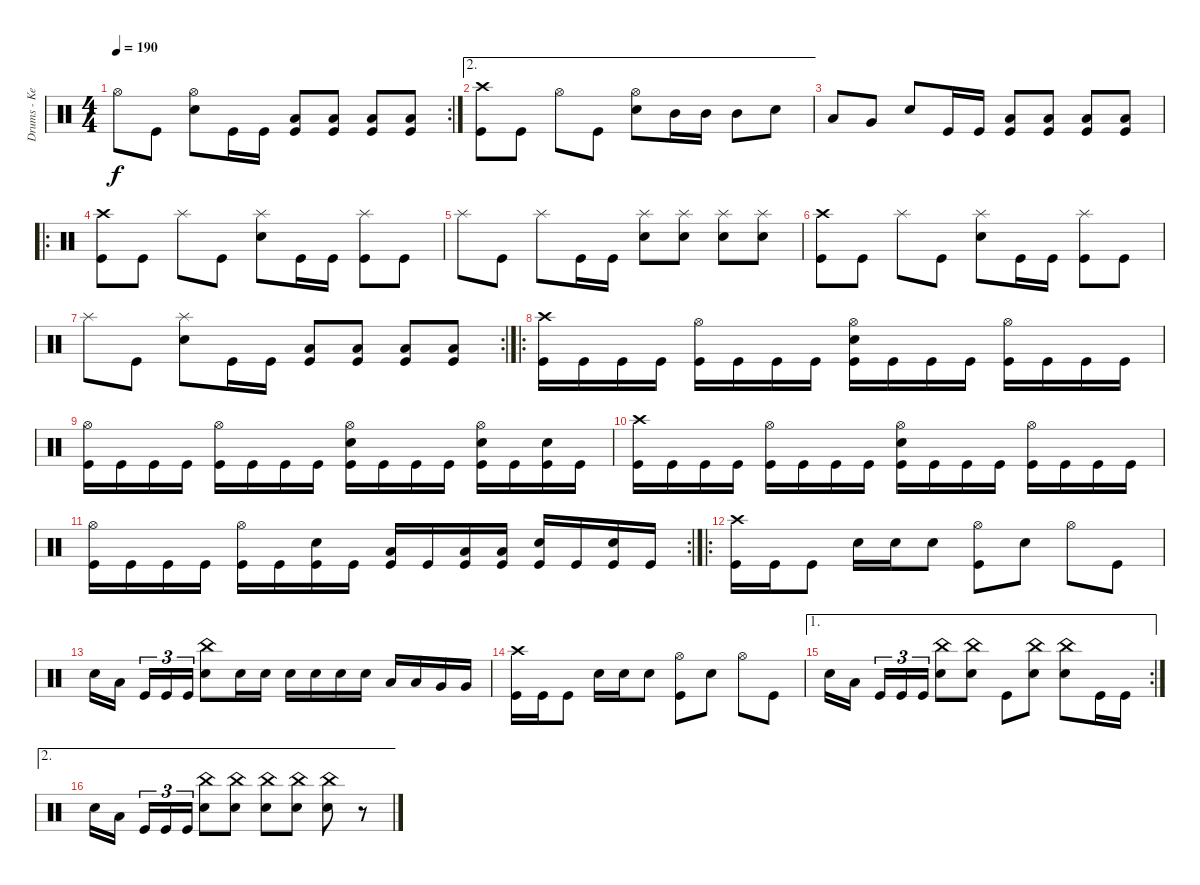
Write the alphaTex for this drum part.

\track ("Drums - Kevin" "Drums - Ke") {instrument percussion}
\staff {score}
\articulation defaults
\rc 2
\ts (4 4)
\tempo 190
\clef neutral
\ks c "Hi-Hat (open)".8{dy f} "Kick (hit)".8
("Hi-Hat (open)" "Electric Snare (hit)").8 "Kick (hit)".16 "Kick (hit)".16 ("Low Tom (hit)" "Kick (hit)").8 ("Low Tom (hit)" "Kick (hit)").8 ("Low Tom (hit)" "Kick (hit)").8 ("Low Tom (hit)" "Kick (hit)").8 |
\ae 2
("Crash high (hit)" "Kick (hit)").8 "Kick (hit)".8 "Hi-Hat (open)".8 "Kick (hit)".8 ("Hi-Hat (open)" "Electric Snare (hit)").8 "Mid Tom (hit)".16 "Mid Tom (hit)".16 "Mid Tom (hit)".8 "Electric Snare (hit)".8 |
"Low Tom (hit)".8 "Very Low Tom (hit)".8 "Electric Snare (hit)".8 "Kick (hit)".16 "Kick (hit)".16 ("Low Tom (hit)" "Kick (hit)").8 ("Low Tom (hit)" "Kick (hit)").8 ("Low Tom (hit)" "Kick (hit)").8 ("Low Tom (hit)" "Kick (hit)").8 |
\ro
("Crash high (hit)" "Kick (hit)").8 "Kick (hit)".8 "Splash (hit)".8 "Kick (hit)".8 ("Splash (hit)" "Electric Snare (hit)").8 "Kick (hit)".16 "Kick (hit)".16 ("Splash (hit)" "Kick (hit)").8 "Kick (hit)".8 |
"Splash (hit)".8 "Kick (hit)".8 "Splash (hit)".8 "Kick (hit)".16 "Kick (hit)".16 ("Splash (hit)" "Electric Snare (hit)").8 ("Splash (hit)" "Electric Snare (hit)").8 ("Splash (hit)" "Electric Snare (hit)").8 ("Splash (hit)" "Electric Snare (hit)").8 |
("Crash high (hit)" "Kick (hit)").8 "Kick (hit)".8 "Splash (hit)".8 "Kick (hit)".8 ("Splash (hit)" "Electric Snare (hit)").8 "Kick (hit)".16 "Kick (hit)".16 ("Splash (hit)" "Kick (hit)").8 "Kick (hit)".8 |
\rc 2 "Splash (hit)".8 "Kick (hit)".8
("Splash (hit)" "Electric Snare (hit)").8 "Kick (hit)".16 "Kick (hit)".16 ("Low Tom (hit)" "Kick (hit)").8 ("Low Tom (hit)" "Kick (hit)").8 ("Low Tom (hit)" "Kick (hit)").8 ("Low Tom (hit)" "Kick (hit)").8 |
\ro
("Crash high (hit)" "Kick (hit)").16 "Kick (hit)".16 "Kick (hit)".16 "Kick (hit)".16 ("Hi-Hat (open)" "Kick (hit)").16 "Kick (hit)".16 "Kick (hit)".16 "Kick (hit)".16 ("Hi-Hat (open)" "Electric Snare (hit)" "Kick (hit)").16 "Kick (hit)".16 "Kick (hit)".16 "Kick (hit)".16 ("Hi-Hat (open)" "Kick (hit)").16 "Kick (hit)".16 "Kick (hit)".16 "Kick (hit)".16 |
("Hi-Hat (open)" "Kick (hit)").16 "Kick (hit)".16 "Kick (hit)".16 "Kick (hit)".16 ("Hi-Hat (open)" "Kick (hit)").16 "Kick (hit)".16 "Kick (hit)".16 "Kick (hit)".16 ("Hi-Hat (open)" "Electric Snare (hit)" "Kick (hit)").16 "Kick (hit)".16 "Kick (hit)".16 "Kick (hit)".16 ("Hi-Hat (open)" "Electric Snare (hit)" "Kick (hit)").16 "Kick (hit)".16 ("Electric Snare (hit)" "Kick (hit)").16 "Kick (hit)".16 |
("Crash high (hit)" "Kick (hit)").16 "Kick (hit)".16 "Kick (hit)".16 "Kick (hit)".16 ("Hi-Hat (open)" "Kick (hit)").16 "Kick (hit)".16 "Kick (hit)".16 "Kick (hit)".16 ("Hi-Hat (open)" "Electric Snare (hit)" "Kick (hit)").16 "Kick (hit)".16 "Kick (hit)".16 "Kick (hit)".16 ("Hi-Hat (open)" "Kick (hit)").16 "Kick (hit)".16 "Kick (hit)".16 "Kick (hit)".16 |
\rc 2
("Hi-Hat (open)" "Kick (hit)").16 "Kick (hit)".16 "Kick (hit)".16 "Kick (hit)".16 ("Hi-Hat (open)" "Kick (hit)").16 "Kick (hit)".16 ("Electric Snare (hit)" "Kick (hit)").16 "Kick (hit)".16 ("Low Tom (hit)" "Kick (hit)").16 "Kick (hit)".16 ("Low Tom (hit)" "Kick (hit)").16 ("Low Tom (hit)" "Kick (hit)").16 ("Electric Snare (hit)" "Kick (hit)").16 "Kick (hit)".16 ("Electric Snare (hit)" "Kick (hit)").16 "Kick (hit)".16 |
\ro
("Crash high (hit)" "Kick (hit)").16 "Kick (hit)".16 "Kick (hit)".8 "Electric Snare (hit)".16 "Electric Snare (hit)".16 "Electric Snare (hit)".8 ("Hi-Hat (open)" "Kick (hit)").8 "Electric Snare (hit)".8 "Hi-Hat (open)".8 "Kick (hit)".8 |
"Electric Snare (hit)".16 "Low Tom (hit)".16 "Kick (hit)".16{tu (3 2)} "Kick (hit)".16{tu (3 2)} "Kick (hit)".16{tu (3 2)} ("China (hit)" "Electric Snare (hit)").8 "Electric Snare (hit)".16 "Electric Snare (hit)".16 "Electric Snare (hit)".16 "Electric Snare (hit)".16 "Electric Snare (hit)".16 "Electric Snare (hit)".16 "Low Tom (hit)".16 "Low Tom (hit)".16 "Very Low Tom (hit)".16 "Very Low Tom (hit)".16 |
("Crash high (hit)" "Kick (hit)").16 "Kick (hit)".16 "Kick (hit)".8 "Electric Snare (hit)".16 "Electric Snare (hit)".16 "Electric Snare (hit)".8 ("Hi-Hat (open)" "Kick (hit)").8 "Electric Snare (hit)".8 "Hi-Hat (open)".8 "Kick (hit)".8 |
\ae 1
\rc 2 "Electric Snare (hit)".16 "Low Tom (hit)".16 "Kick (hit)".16{tu (3 2)} "Kick (hit)".16{tu (3 2)} "Kick (hit)".16{tu (3 2)}
("China (hit)" "Electric Snare (hit)").8 ("China (hit)" "Electric Snare (hit)").8 "Kick (hit)".8 ("China (hit)" "Electric Snare (hit)").8 ("China (hit)" "Electric Snare (hit)").8 "Kick (hit)".16 "Kick (hit)".16 |
\ae 2 "Electric Snare (hit)".16 "Low Tom (hit)".16 "Kick (hit)".16{tu (3 2)} "Kick (hit)".16{tu (3 2)} "Kick (hit)".16{tu (3 2)}
("China (hit)" "Electric Snare (hit)").8 ("China (hit)" "Electric Snare (hit)").8 ("China (hit)" "Electric Snare (hit)").8 ("China (hit)" "Electric Snare (hit)").8 ("China (hit)" "Electric Snare (hit)").8 r.8
